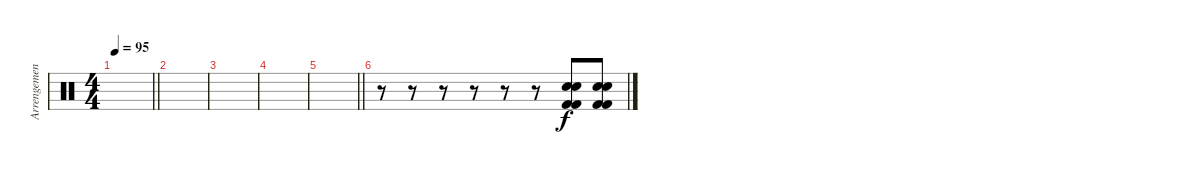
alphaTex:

\track ("Arrengements" "Arrengemen") {instrument percussion}
\staff {score}
\articulation defaults
\ts (4 4)
\tempo 95
\clef neutral
\barLineRight lightlight
\ks c
|
|
|
|
\barLineRight lightlight
|
r.8 r.8 r.8 r.8 r.8 r.8 ("Snare (hit) 2" "Electric Snare (hit)" "Kick (hit) 2" "Kick (hit) 2").8 ("Snare (hit) 2" "Electric Snare (hit)" "Kick (hit) 2" "Kick (hit) 2").8
